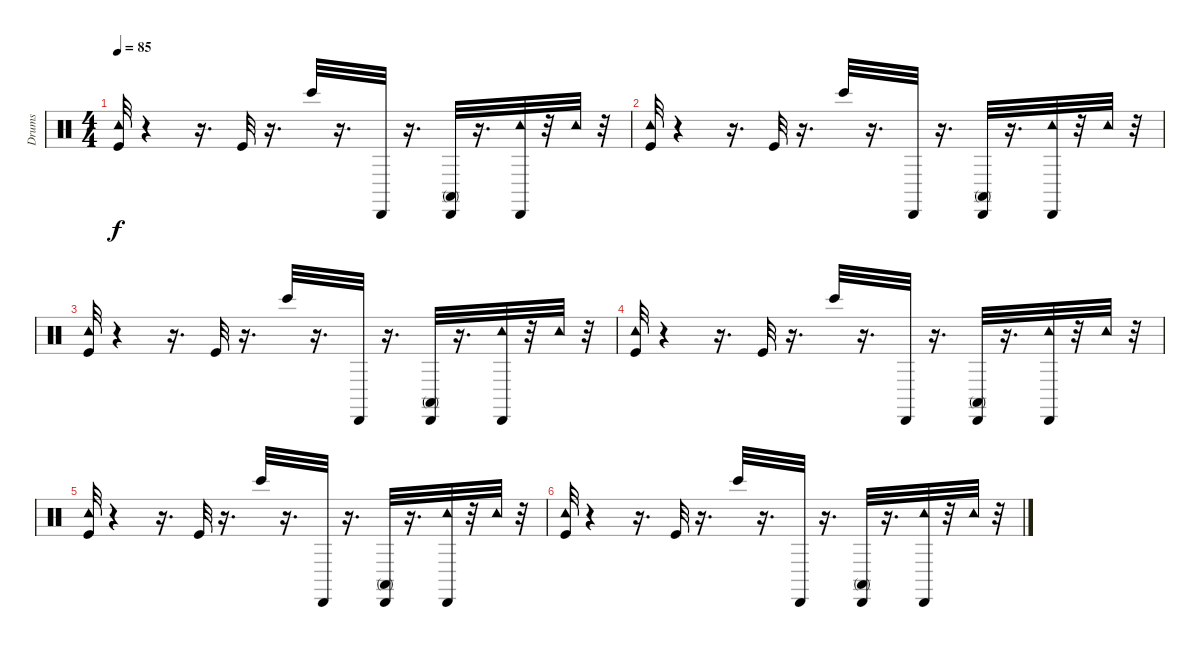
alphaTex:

\track ("Drums" "Drums") {instrument percussion}
\staff {score}
\articulation defaults
\ts (4 4)
\tempo 85
\clef neutral
\ks c
("Kick (hit)" "Tambourine (hit)").32{dy f} r.4 r.16{d} "Kick (hit)".32 r.16{d} "Bongo High (hit)".32 r.16{d} "Cabasa (hit)".32 r.16{d} ("Cabasa (hit)" "Conga high (mute)").32 r.16{d} ("Cabasa (hit)" "Tambourine (hit)").32 r.32 "Tambourine (hit)".32 r.32 |
("Kick (hit)" "Tambourine (hit)").32 r.4 r.16{d} "Kick (hit)".32 r.16{d} "Bongo High (hit)".32 r.16{d} "Cabasa (hit)".32 r.16{d} ("Cabasa (hit)" "Conga high (mute)").32 r.16{d} ("Cabasa (hit)" "Tambourine (hit)").32 r.32 "Tambourine (hit)".32 r.32 |
("Kick (hit)" "Tambourine (hit)").32 r.4 r.16{d} "Kick (hit)".32 r.16{d} "Bongo High (hit)".32 r.16{d} "Cabasa (hit)".32 r.16{d} ("Cabasa (hit)" "Conga high (mute)").32 r.16{d} ("Cabasa (hit)" "Tambourine (hit)").32 r.32 "Tambourine (hit)".32 r.32 |
("Kick (hit)" "Tambourine (hit)").32 r.4 r.16{d} "Kick (hit)".32 r.16{d} "Bongo High (hit)".32 r.16{d} "Cabasa (hit)".32 r.16{d} ("Cabasa (hit)" "Conga high (mute)").32 r.16{d} ("Cabasa (hit)" "Tambourine (hit)").32 r.32 "Tambourine (hit)".32 r.32 |
("Kick (hit)" "Tambourine (hit)").32 r.4 r.16{d} "Kick (hit)".32 r.16{d} "Bongo High (hit)".32 r.16{d} "Cabasa (hit)".32 r.16{d} ("Cabasa (hit)" "Conga high (mute)").32 r.16{d} ("Cabasa (hit)" "Tambourine (hit)").32 r.32 "Tambourine (hit)".32 r.32 |
("Kick (hit)" "Tambourine (hit)").32 r.4 r.16{d} "Kick (hit)".32 r.16{d} "Bongo High (hit)".32 r.16{d} "Cabasa (hit)".32 r.16{d} ("Cabasa (hit)" "Conga high (mute)").32 r.16{d} ("Cabasa (hit)" "Tambourine (hit)").32 r.32 "Tambourine (hit)".32 r.32
